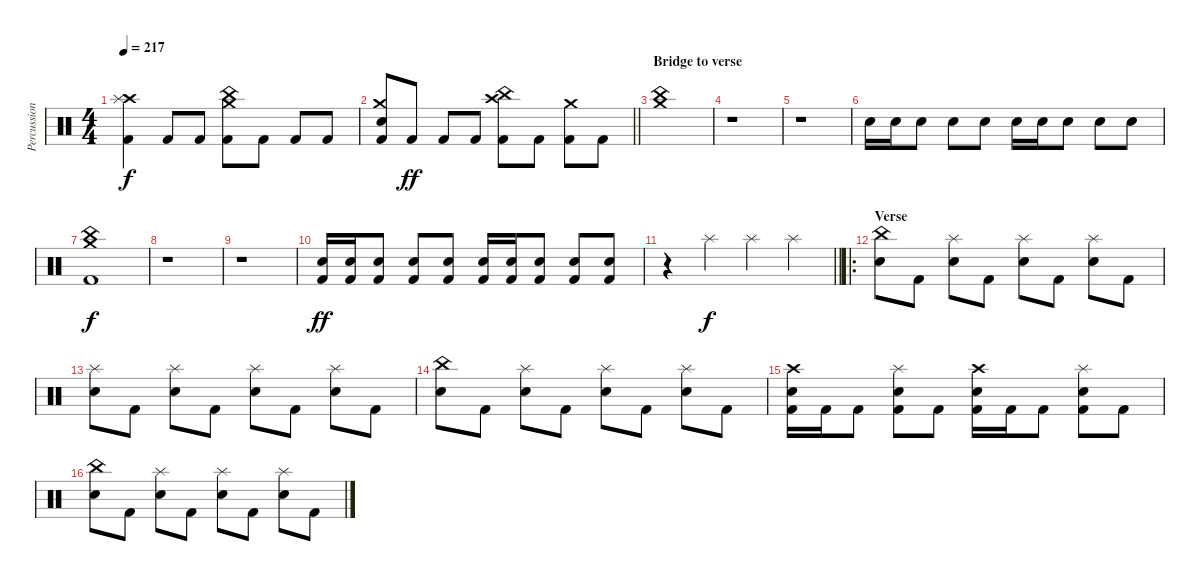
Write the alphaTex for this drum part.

\track ("Percussion" "Percussion") {instrument percussion}
\staff {score}
\articulation defaults
\ts (4 4)
\tempo 217
\clef neutral
\ks c
("Crash high (hit)" "Splash (hit)" "Kick (hit) 2").4{dy f} "Kick (hit) 2".8 "Kick (hit) 2".8 ("Crash medium (hit)" "China (hit)" "Kick (hit) 2").8 "Kick (hit) 2".8 "Kick (hit) 2".8 "Kick (hit) 2".8 |
\barLineRight lightlight
("Crash medium (hit)" "Electric Snare (hit)" "Kick (hit) 2").8 "Kick (hit) 2".8{dy ff} "Kick (hit) 2".8 "Kick (hit) 2".8 ("Crash high (hit)" "China (hit)" "Kick (hit) 2").8 "Kick (hit) 2".8 ("Crash medium (hit)" "Kick (hit) 2").8 "Kick (hit) 2".8 |
\section ("" "Bridge to verse")
("Crash medium (hit)" "China (hit)").1 |
r.1 |
r.1 |
"Electric Snare (hit)".16 "Electric Snare (hit)".16 "Electric Snare (hit)".8 "Electric Snare (hit)".8 "Electric Snare (hit)".8 "Electric Snare (hit)".16 "Electric Snare (hit)".16 "Electric Snare (hit)".8 "Electric Snare (hit)".8 "Electric Snare (hit)".8 |
("Crash medium (hit)" "China (hit)" "Kick (hit) 2").1{dy f} |
r.1 |
r.1 |
("Electric Snare (hit)" "Kick (hit) 2").16{dy ff} ("Electric Snare (hit)" "Kick (hit) 2").16 ("Electric Snare (hit)" "Kick (hit) 2").8 ("Electric Snare (hit)" "Kick (hit) 2").8 ("Electric Snare (hit)" "Kick (hit) 2").8 ("Electric Snare (hit)" "Kick (hit) 2").16 ("Electric Snare (hit)" "Kick (hit) 2").16 ("Electric Snare (hit)" "Kick (hit) 2").8 ("Electric Snare (hit)" "Kick (hit) 2").8 ("Electric Snare (hit)" "Kick (hit) 2").8 |
\barLineRight lightlight
r.4 "Splash (hit)".4{dy f} "Splash (hit)".4 "Splash (hit)".4 |
\ro
\section ("" "Verse")
("China (hit)" "Electric Snare (hit)").8 "Kick (hit) 2".8 ("Splash (hit)" "Electric Snare (hit)").8 "Kick (hit) 2".8 ("Splash (hit)" "Electric Snare (hit)").8 "Kick (hit) 2".8 ("Splash (hit)" "Electric Snare (hit)").8 "Kick (hit) 2".8 |
("Splash (hit)" "Electric Snare (hit)").8 "Kick (hit) 2".8 ("Splash (hit)" "Electric Snare (hit)").8 "Kick (hit) 2".8 ("Splash (hit)" "Electric Snare (hit)").8 "Kick (hit) 2".8 ("Splash (hit)" "Electric Snare (hit)").8 "Kick (hit) 2".8 |
("China (hit)" "Electric Snare (hit)").8 "Kick (hit) 2".8 ("Splash (hit)" "Electric Snare (hit)").8 "Kick (hit) 2".8 ("Splash (hit)" "Electric Snare (hit)").8 "Kick (hit) 2".8 ("Splash (hit)" "Electric Snare (hit)").8 "Kick (hit) 2".8 |
("Crash high (hit)" "Electric Snare (hit)" "Kick (hit) 2").16 "Kick (hit) 2".16 "Kick (hit) 2".8 ("Splash (hit)" "Electric Snare (hit)" "Kick (hit) 2").8 "Kick (hit) 2".8 ("Crash high (hit)" "Electric Snare (hit)" "Kick (hit) 2").16 "Kick (hit) 2".16 "Kick (hit) 2".8 ("Splash (hit)" "Electric Snare (hit)" "Kick (hit) 2").8 "Kick (hit) 2".8 |
("China (hit)" "Electric Snare (hit)").8 "Kick (hit) 2".8 ("Splash (hit)" "Electric Snare (hit)").8 "Kick (hit) 2".8 ("Splash (hit)" "Electric Snare (hit)").8 "Kick (hit) 2".8 ("Splash (hit)" "Electric Snare (hit)").8 "Kick (hit) 2".8
